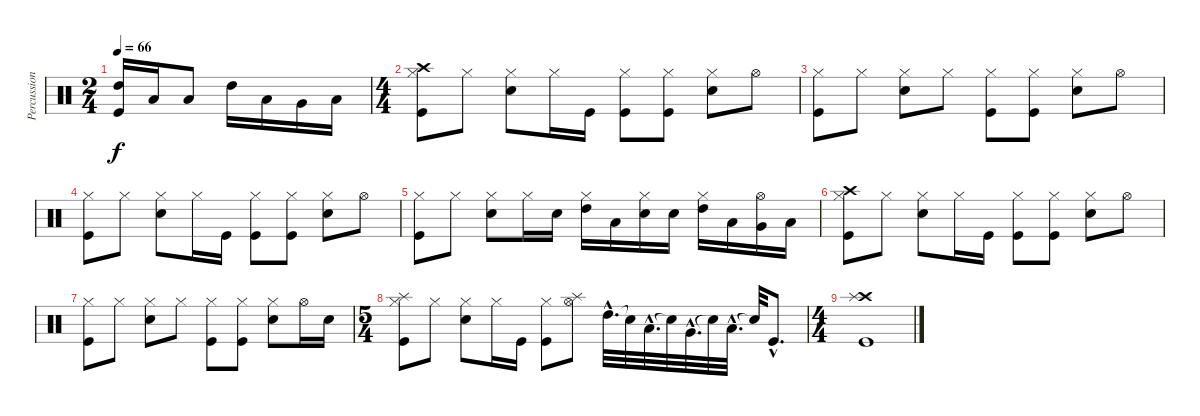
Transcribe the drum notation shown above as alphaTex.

\track ("Percussion" "Percussion") {instrument percussion}
\staff {score}
\articulation defaults
\ts (2 4)
\tempo 66
\clef neutral
\ks c
("High Tom (hit)" "Kick (hit)").16{dy f} "Low Tom (hit)".16 "Low Floor Tom (hit)".8 "High Tom (hit)".16 "Low Tom (hit)".16 "Very Low Tom (hit)".16 "Low Floor Tom (hit)".16 |
\ts (4 4)
("Hi-Hat (closed)" "Kick (hit)" "Crash high (hit)").8 "Hi-Hat (closed)".8 ("Hi-Hat (closed)" "Electric Snare (hit)").8 "Hi-Hat (closed)".16 "Kick (hit)".16 ("Hi-Hat (closed)" "Kick (hit)").8 ("Hi-Hat (closed)" "Kick (hit)").8 ("Hi-Hat (closed)" "Electric Snare (hit)").8 "Hi-Hat (open)".8 |
("Hi-Hat (closed)" "Kick (hit)").8 "Hi-Hat (closed)".8 ("Hi-Hat (closed)" "Electric Snare (hit)").8 "Hi-Hat (closed)".8 ("Hi-Hat (closed)" "Kick (hit)").8 ("Hi-Hat (closed)" "Kick (hit)").8 ("Hi-Hat (closed)" "Electric Snare (hit)").8 "Hi-Hat (open)".8 |
("Hi-Hat (closed)" "Kick (hit)").8 "Hi-Hat (closed)".8 ("Hi-Hat (closed)" "Electric Snare (hit)").8 "Hi-Hat (closed)".16 "Kick (hit)".16 ("Hi-Hat (closed)" "Kick (hit)").8 ("Hi-Hat (closed)" "Kick (hit)").8 ("Hi-Hat (closed)" "Electric Snare (hit)").8 "Hi-Hat (open)".8 |
("Hi-Hat (closed)" "Kick (hit)").8 "Hi-Hat (closed)".8 ("Hi-Hat (closed)" "Electric Snare (hit)").8 "Hi-Hat (closed)".16 "Electric Snare (hit)".16 ("Hi-Hat (closed)" "High Tom (hit)").16 "Low Floor Tom (hit)".16 ("Hi-Hat (closed)" "Snare (hit) 2").16 "Electric Snare (hit)".16 ("Hi-Hat (closed)" "High Tom (hit)").16 "Low Tom (hit)".16 ("Hi-Hat (open)" "Very Low Tom (hit)").16 "Low Floor Tom (hit)".16 |
("Hi-Hat (closed)" "Kick (hit)" "Crash high (hit)").8 "Hi-Hat (closed)".8 ("Hi-Hat (closed)" "Electric Snare (hit)").8 "Hi-Hat (closed)".16 "Kick (hit)".16 ("Hi-Hat (closed)" "Kick (hit)").8 ("Hi-Hat (closed)" "Kick (hit)").8 ("Hi-Hat (closed)" "Electric Snare (hit)").8 "Hi-Hat (open)".8 |
("Hi-Hat (closed)" "Kick (hit)").8 "Hi-Hat (closed)".8 ("Hi-Hat (closed)" "Electric Snare (hit)").8 "Hi-Hat (closed)".8 ("Hi-Hat (closed)" "Kick (hit)").8 ("Hi-Hat (closed)" "Kick (hit)").8 ("Hi-Hat (closed)" "Electric Snare (hit)").8 "Hi-Hat (open)".16 "Electric Snare (hit)".16 |
\ts (5 4)
("Hi-Hat (closed)" "Kick (hit)" "Splash (hit)").8 "Hi-Hat (closed)".8 ("Hi-Hat (closed)" "Electric Snare (hit)").8 "Hi-Hat (closed)".16 "Kick (hit)".16 ("Hi-Hat (closed)" "Kick (hit)").8 ("Hi-Hat (open)" "Splash (hit)").8 "High Tom (hit)"{hac}.32{d} "Snare (hit)"{t}.32 "Low Tom (hit)"{hac}.32{d} "Snare (hit)"{t}.32 "Very Low Tom (hit)"{hac}.32{d} "Snare (hit)"{t}.32 "Low Floor Tom (hit)"{hac}.32{d} "Snare (hit)"{t}.32 "Kick (hit)"{hac}.8{d} |
\ts (4 4)
("Kick (hit)" "Crash high (hit)" "Splash (hit)").1
